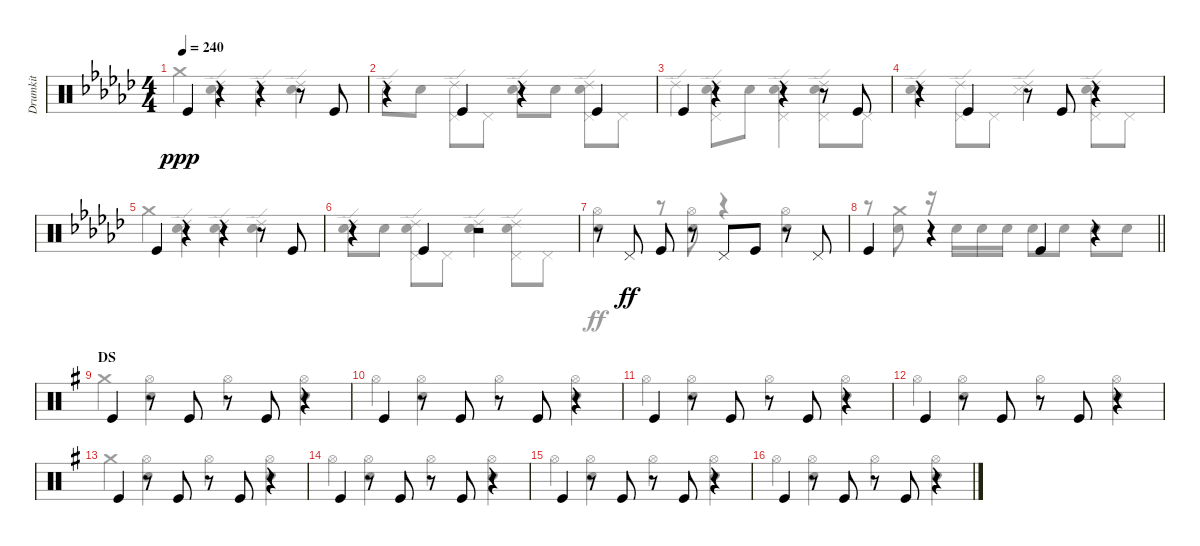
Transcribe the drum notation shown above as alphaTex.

\track ("Drumkit" "Drumkit") {instrument percussion}
\staff {score}
\articulation defaults
\voice
\ts (4 4)
\section ("" "")
\tempo 240
\clef neutral
\ks gb "Kick (hit)".4{dy ppp}
r.4 r.4 r.8 "Kick (hit)".8 |
r.4 "Kick (hit)".4 r.4 "Kick (hit)".4 |
"Kick (hit)".4 r.4 r.4 r.8 "Kick (hit)".8 |
r.4 "Kick (hit)".4 r.8 "Kick (hit)".8 r.4 |
"Kick (hit)".4 r.4 r.4 r.8 "Kick (hit)".8 |
r.4 "Kick (hit)".4 r.2 |
r.8 "Pedal Hi-Hat (hit)".8{dy ff} "Kick (hit)".8 r.8 "Pedal Hi-Hat (hit)".8 "Kick (hit)".8 r.8 "Pedal Hi-Hat (hit)".8 |
\barLineRight lightlight "Kick (hit)".4
r.4 "Kick (hit)".4 r.4 |
\section ("" "DS")
\ks g "Kick (hit)".4
r.8 "Kick (hit)".8 r.8 "Kick (hit)".8 r.4 |
"Kick (hit)".4 r.8 "Kick (hit)".8 r.8 "Kick (hit)".8 r.4 |
"Kick (hit)".4 r.8 "Kick (hit)".8 r.8 "Kick (hit)".8 r.4 |
"Kick (hit)".4 r.8 "Kick (hit)".8 r.8 "Kick (hit)".8 r.4 |
"Kick (hit)".4 r.8 "Kick (hit)".8 r.8 "Kick (hit)".8 r.4 |
"Kick (hit)".4 r.8 "Kick (hit)".8 r.8 "Kick (hit)".8 r.4 |
"Kick (hit)".4 r.8 "Kick (hit)".8 r.8 "Kick (hit)".8 r.4 |
"Kick (hit)".4 r.8 "Kick (hit)".8 r.8 "Kick (hit)".8 r.4
\voice
\clef neutral
\ottava regular
\simile none
\ks gb "Crash medium (hit)".4{dy ppp}
("Snare (hit) 2" "Ride (edge) 2").4 "Ride (edge) 2".4 ("Ride (edge) 2" "Snare (hit) 2").4 |
"Ride (edge) 2".8 "Snare (hit) 2".8 ("Ride (edge) 2" "Pedal Hi-Hat (hit)").8 "Pedal Hi-Hat (hit)".8 ("Ride (edge) 2" "Snare (hit) 2").8 "Snare (hit) 2".8 ("Snare (hit) 2" "Pedal Hi-Hat (hit)" "Ride (edge) 2").8 "Pedal Hi-Hat (hit)".8 |
"Ride (edge) 2".4 ("Ride (edge) 2" "Snare (hit) 2" "Pedal Hi-Hat (hit)").8 "Snare (hit) 2".8 ("Snare (hit) 2" "Ride (edge) 2" "Pedal Hi-Hat (hit)").4 ("Pedal Hi-Hat (hit)" "Snare (hit) 2" "Ride (edge) 2").8 "Pedal Hi-Hat (hit)".8 |
("Ride (edge) 2" "Snare (hit) 2").4 ("Ride (edge) 2" "Pedal Hi-Hat (hit)").8 "Pedal Hi-Hat (hit)".8 ("Snare (side stick) 3" "Ride (edge) 2").4 ("Ride (edge) 2" "Pedal Hi-Hat (hit)" "Snare (hit) 2").8 "Pedal Hi-Hat (hit)".8 |
"Crash medium (hit)".4 ("Ride (edge) 2" "Snare (hit) 2").4 ("Ride (edge) 2" "Snare (hit) 2").4 ("Ride (edge) 2" "Snare (hit) 2").4 |
("Ride (edge) 2" "Snare (hit) 2").8 "Snare (hit) 2".8 ("Snare (hit) 2" "Pedal Hi-Hat (hit)" "Ride (edge) 2").8 "Pedal Hi-Hat (hit)".8 ("Snare (hit) 2" "Ride (edge) 2").4 ("Ride (edge) 2" "Snare (hit) 2" "Pedal Hi-Hat (hit)").8 "Pedal Hi-Hat (hit)".8 |
("Hi-Hat (open)" "Snare (hit) 2").4{dy ff} r.8 ("Snare (hit) 2" "Hi-Hat (open)").8 r.4 ("Hi-Hat (open)" "Snare (hit) 2").4 |
\barLineRight lightlight
r.8 ("Snare (hit) 2" "Crash medium (hit)").8 r.16 "Snare (hit) 2".16 "Snare (hit) 2".16 "Snare (hit) 2".16 "Snare (hit) 2".8 "Snare (hit) 2".8 "Snare (hit) 2".8 "Snare (hit) 2".8 |
\ks g "Crash medium (hit)".4
("Hi-Hat (open)" "Snare (hit) 2").4 "Hi-Hat (open)".4 ("Hi-Hat (open)" "Snare (hit) 2").4 |
"Hi-Hat (open)".4 ("Hi-Hat (open)" "Snare (hit) 2").4 "Hi-Hat (open)".4 ("Hi-Hat (open)" "Snare (hit) 2").4 |
"Hi-Hat (open)".4 ("Hi-Hat (open)" "Snare (hit) 2").4 "Hi-Hat (open)".4 ("Hi-Hat (open)" "Snare (hit) 2").4 |
"Hi-Hat (open)".4 ("Hi-Hat (open)" "Snare (hit) 2").4 "Hi-Hat (open)".4 ("Hi-Hat (open)" "Snare (hit) 2").4 |
"Crash medium (hit)".4 ("Hi-Hat (open)" "Snare (hit) 2").4 "Hi-Hat (open)".4 ("Hi-Hat (open)" "Snare (hit) 2").4 |
"Hi-Hat (open)".4 ("Hi-Hat (open)" "Snare (hit) 2").4 "Hi-Hat (open)".4 ("Hi-Hat (open)" "Snare (hit) 2").4 |
"Hi-Hat (open)".4 ("Hi-Hat (open)" "Snare (hit) 2").4 "Hi-Hat (open)".4 ("Hi-Hat (open)" "Snare (hit) 2").4 |
"Hi-Hat (open)".4 ("Hi-Hat (open)" "Snare (hit) 2").4 "Hi-Hat (open)".4 ("Hi-Hat (open)" "Snare (hit) 2").4
